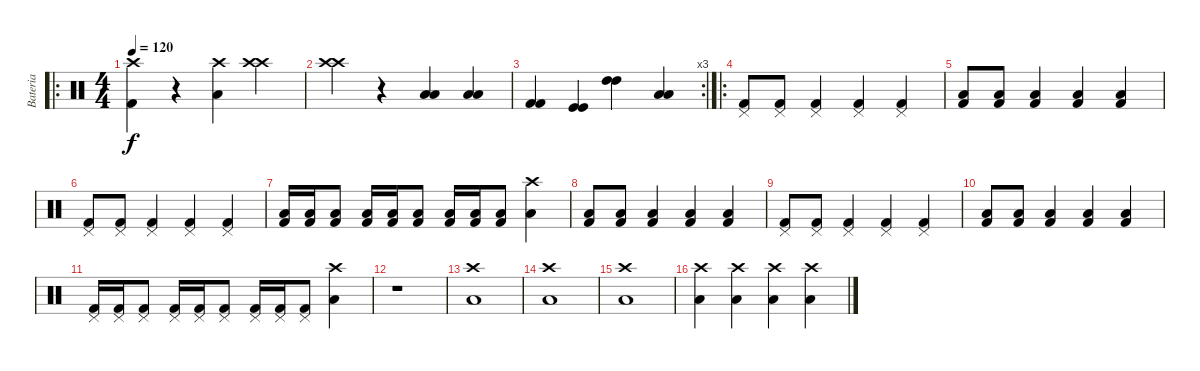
\track ("Bateria" "Bateria") {instrument percussion}
\staff {score}
\articulation defaults
\ro
\ts (4 4)
\tempo 120
\clef neutral
\ks c
("Kick (hit) 2" "Crash high (hit)").4{dy f} r.4 ("Crash high (hit)" "Low Tom (hit)").4 ("Crash high (hit)" "Crash high (hit)").4 |
("Crash high (hit)" "Crash high (hit)").4 r.4 ("Low Tom (hit)" "Low Tom (hit)").4 ("Low Tom (hit)" "Low Tom (hit)").4 |
\rc 3
("Kick (hit) 2" "Kick (hit) 2").4 ("Kick (hit)" "Kick (hit)").4 ("High Tom (hit)" "High Tom (hit)").4 ("Low Tom (hit)" "Low Tom (hit)").4 |
\ro
("Kick (hit) 2" "Pedal Hi-Hat (hit)").8 ("Kick (hit) 2" "Pedal Hi-Hat (hit)").8 ("Kick (hit) 2" "Pedal Hi-Hat (hit)").4 ("Kick (hit) 2" "Pedal Hi-Hat (hit)").4 ("Kick (hit) 2" "Pedal Hi-Hat (hit)").4 |
("Kick (hit) 2" "Low Tom (hit)").8 ("Kick (hit) 2" "Low Tom (hit)").8 ("Kick (hit) 2" "Low Tom (hit)").4 ("Kick (hit) 2" "Low Tom (hit)").4 ("Kick (hit) 2" "Low Tom (hit)").4 |
("Kick (hit) 2" "Pedal Hi-Hat (hit)").8 ("Kick (hit) 2" "Pedal Hi-Hat (hit)").8 ("Kick (hit) 2" "Pedal Hi-Hat (hit)").4 ("Kick (hit) 2" "Pedal Hi-Hat (hit)").4 ("Kick (hit) 2" "Pedal Hi-Hat (hit)").4 |
("Kick (hit) 2" "Low Tom (hit)").16 ("Kick (hit) 2" "Low Tom (hit)").16 ("Kick (hit) 2" "Low Tom (hit)").8 ("Kick (hit) 2" "Low Tom (hit)").16 ("Kick (hit) 2" "Low Tom (hit)").16 ("Kick (hit) 2" "Low Tom (hit)").8 ("Kick (hit) 2" "Low Tom (hit)").16 ("Kick (hit) 2" "Low Tom (hit)").16 ("Kick (hit) 2" "Low Tom (hit)").8 ("Low Tom (hit)" "Crash high (hit)").4 |
("Kick (hit) 2" "Low Tom (hit)").8 ("Kick (hit) 2" "Low Tom (hit)").8 ("Kick (hit) 2" "Low Tom (hit)").4 ("Kick (hit) 2" "Low Tom (hit)").4 ("Kick (hit) 2" "Low Tom (hit)").4 |
("Kick (hit) 2" "Pedal Hi-Hat (hit)").8 ("Kick (hit) 2" "Pedal Hi-Hat (hit)").8 ("Kick (hit) 2" "Pedal Hi-Hat (hit)").4 ("Kick (hit) 2" "Pedal Hi-Hat (hit)").4 ("Kick (hit) 2" "Pedal Hi-Hat (hit)").4 |
("Kick (hit) 2" "Low Tom (hit)").8 ("Kick (hit) 2" "Low Tom (hit)").8 ("Kick (hit) 2" "Low Tom (hit)").4 ("Kick (hit) 2" "Low Tom (hit)").4 ("Kick (hit) 2" "Low Tom (hit)").4 |
("Kick (hit) 2" "Pedal Hi-Hat (hit)").16 ("Kick (hit) 2" "Pedal Hi-Hat (hit)").16 ("Kick (hit) 2" "Pedal Hi-Hat (hit)").8 ("Kick (hit) 2" "Pedal Hi-Hat (hit)").16 ("Kick (hit) 2" "Pedal Hi-Hat (hit)").16 ("Kick (hit) 2" "Pedal Hi-Hat (hit)").8 ("Kick (hit) 2" "Pedal Hi-Hat (hit)").16 ("Kick (hit) 2" "Pedal Hi-Hat (hit)").16 ("Kick (hit) 2" "Pedal Hi-Hat (hit)").8 ("Low Tom (hit)" "Crash high (hit)").4 |
r.1 |
("Low Tom (hit)" "Crash high (hit)").1 |
("Low Tom (hit)" "Crash high (hit)").1 |
("Low Tom (hit)" "Crash high (hit)").1 |
("Low Tom (hit)" "Crash high (hit)").4 ("Low Tom (hit)" "Crash high (hit)").4 ("Low Tom (hit)" "Crash high (hit)").4 ("Low Tom (hit)" "Crash high (hit)").4
